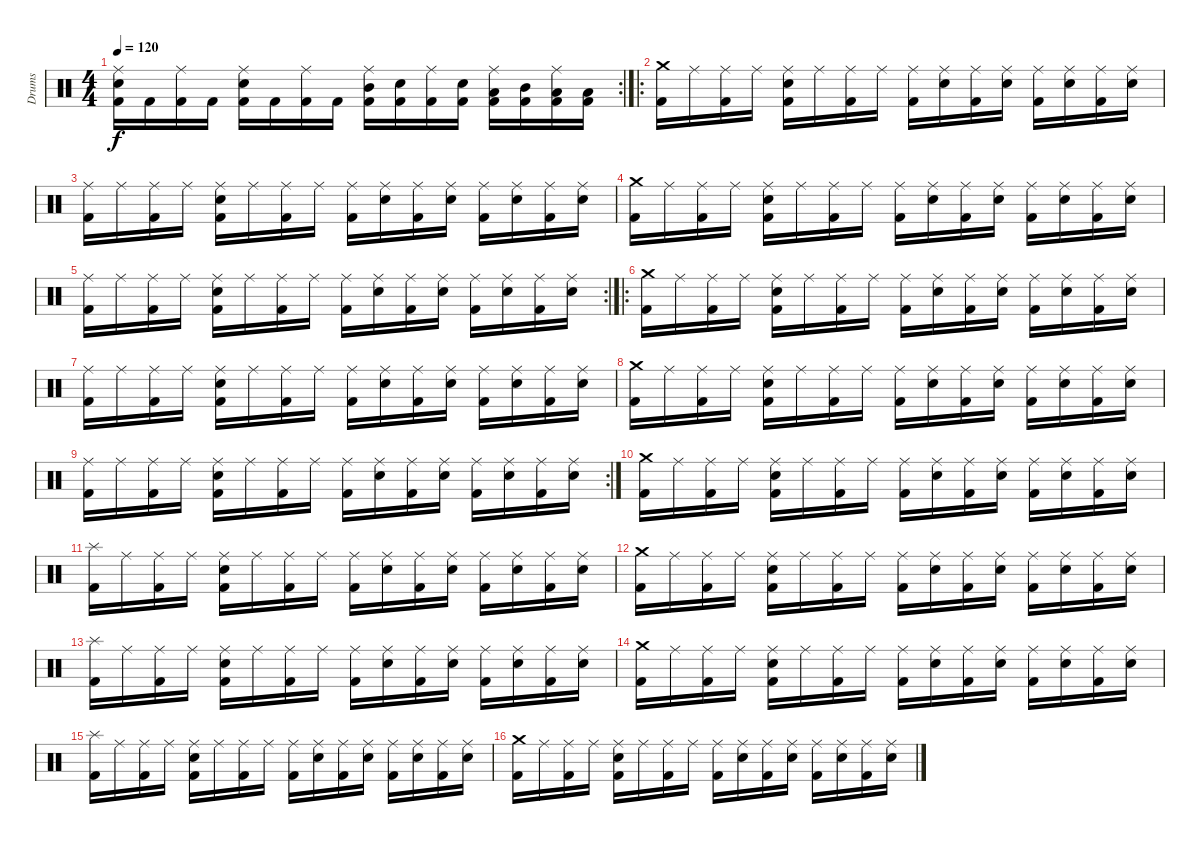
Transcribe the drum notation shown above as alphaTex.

\track ("Drums" "Drums") {instrument percussion}
\staff {score}
\articulation defaults
\rc 2
\ts (4 4)
\tempo 120
\clef neutral
\ks c
("Ride (middle)" "Snare (hit) 2" "Kick (hit) 2").16{dy f} "Kick (hit) 2".16 ("Ride (middle)" "Kick (hit) 2").16 "Kick (hit) 2".16 ("Ride (middle)" "Snare (hit) 2" "Kick (hit) 2").16 "Kick (hit) 2".16 ("Ride (middle)" "Kick (hit) 2").16 "Kick (hit) 2".16 ("Ride (middle)" "Mid Tom (hit)" "Kick (hit) 2").16 ("Snare (hit) 2" "Kick (hit) 2").16 ("Ride (middle)" "Kick (hit) 2").16 ("Snare (hit) 2" "Kick (hit) 2").16 ("Ride (middle)" "Low Floor Tom (hit)" "Kick (hit) 2").16 ("Mid Tom (hit)" "Kick (hit) 2").16 ("Ride (middle)" "Low Tom (hit)" "Kick (hit) 2").16 ("Low Floor Tom (hit)" "Kick (hit) 2").16 |
\ro
("Crash medium (hit)" "Kick (hit) 2").16 "Ride (middle)".16 ("Ride (middle)" "Kick (hit) 2").16 "Ride (middle)".16 ("Ride (middle)" "Kick (hit) 2" "Snare (hit) 2").16 "Ride (middle)".16 ("Ride (middle)" "Kick (hit) 2").16 "Ride (middle)".16 ("Ride (middle)" "Kick (hit) 2").16 ("Ride (middle)" "Snare (hit) 2").16 ("Ride (middle)" "Kick (hit) 2").16 ("Ride (middle)" "Snare (hit) 2").16 ("Ride (middle)" "Kick (hit) 2").16 ("Ride (middle)" "Snare (hit) 2").16 ("Ride (middle)" "Kick (hit) 2").16 ("Ride (middle)" "Snare (hit) 2").16 |
("Ride (middle)" "Kick (hit) 2").16 "Ride (middle)".16 ("Ride (middle)" "Kick (hit) 2").16 "Ride (middle)".16 ("Ride (middle)" "Kick (hit) 2" "Snare (hit) 2").16 "Ride (middle)".16 ("Ride (middle)" "Kick (hit) 2").16 "Ride (middle)".16 ("Ride (middle)" "Kick (hit) 2").16 ("Ride (middle)" "Snare (hit) 2").16 ("Ride (middle)" "Kick (hit) 2").16 ("Ride (middle)" "Snare (hit) 2").16 ("Ride (middle)" "Kick (hit) 2").16 ("Ride (middle)" "Snare (hit) 2").16 ("Ride (middle)" "Kick (hit) 2").16 ("Ride (middle)" "Snare (hit) 2").16 |
("Crash medium (hit)" "Kick (hit) 2").16 "Ride (middle)".16 ("Ride (middle)" "Kick (hit) 2").16 "Ride (middle)".16 ("Ride (middle)" "Kick (hit) 2" "Snare (hit) 2").16 "Ride (middle)".16 ("Ride (middle)" "Kick (hit) 2").16 "Ride (middle)".16 ("Ride (middle)" "Kick (hit) 2").16 ("Ride (middle)" "Snare (hit) 2").16 ("Ride (middle)" "Kick (hit) 2").16 ("Ride (middle)" "Snare (hit) 2").16 ("Ride (middle)" "Kick (hit) 2").16 ("Ride (middle)" "Snare (hit) 2").16 ("Ride (middle)" "Kick (hit) 2").16 ("Ride (middle)" "Snare (hit) 2").16 |
\rc 2
("Ride (middle)" "Kick (hit) 2").16 "Ride (middle)".16 ("Ride (middle)" "Kick (hit) 2").16 "Ride (middle)".16 ("Ride (middle)" "Kick (hit) 2" "Snare (hit) 2").16 "Ride (middle)".16 ("Ride (middle)" "Kick (hit) 2").16 "Ride (middle)".16 ("Ride (middle)" "Kick (hit) 2").16 ("Ride (middle)" "Snare (hit) 2").16 ("Ride (middle)" "Kick (hit) 2").16 ("Ride (middle)" "Snare (hit) 2").16 ("Ride (middle)" "Kick (hit) 2").16 ("Ride (middle)" "Snare (hit) 2").16 ("Ride (middle)" "Kick (hit) 2").16 ("Ride (middle)" "Snare (hit) 2").16 |
\ro
("Crash medium (hit)" "Kick (hit) 2").16 "Ride (middle)".16 ("Ride (middle)" "Kick (hit) 2").16 "Ride (middle)".16 ("Ride (middle)" "Kick (hit) 2" "Snare (hit) 2").16 "Ride (middle)".16 ("Ride (middle)" "Kick (hit) 2").16 "Ride (middle)".16 ("Ride (middle)" "Kick (hit) 2").16 ("Ride (middle)" "Snare (hit) 2").16 ("Ride (middle)" "Kick (hit) 2").16 ("Ride (middle)" "Snare (hit) 2").16 ("Ride (middle)" "Kick (hit) 2").16 ("Ride (middle)" "Snare (hit) 2").16 ("Ride (middle)" "Kick (hit) 2").16 ("Ride (middle)" "Snare (hit) 2").16 |
("Ride (middle)" "Kick (hit) 2").16 "Ride (middle)".16 ("Ride (middle)" "Kick (hit) 2").16 "Ride (middle)".16 ("Ride (middle)" "Kick (hit) 2" "Snare (hit) 2").16 "Ride (middle)".16 ("Ride (middle)" "Kick (hit) 2").16 "Ride (middle)".16 ("Ride (middle)" "Kick (hit) 2").16 ("Ride (middle)" "Snare (hit) 2").16 ("Ride (middle)" "Kick (hit) 2").16 ("Ride (middle)" "Snare (hit) 2").16 ("Ride (middle)" "Kick (hit) 2").16 ("Ride (middle)" "Snare (hit) 2").16 ("Ride (middle)" "Kick (hit) 2").16 ("Ride (middle)" "Snare (hit) 2").16 |
("Crash medium (hit)" "Kick (hit) 2").16 "Ride (middle)".16 ("Ride (middle)" "Kick (hit) 2").16 "Ride (middle)".16 ("Ride (middle)" "Kick (hit) 2" "Snare (hit) 2").16 "Ride (middle)".16 ("Ride (middle)" "Kick (hit) 2").16 "Ride (middle)".16 ("Ride (middle)" "Kick (hit) 2").16 ("Ride (middle)" "Snare (hit) 2").16 ("Ride (middle)" "Kick (hit) 2").16 ("Ride (middle)" "Snare (hit) 2").16 ("Ride (middle)" "Kick (hit) 2").16 ("Ride (middle)" "Snare (hit) 2").16 ("Ride (middle)" "Kick (hit) 2").16 ("Ride (middle)" "Snare (hit) 2").16 |
\rc 2
("Ride (middle)" "Kick (hit) 2").16 "Ride (middle)".16 ("Ride (middle)" "Kick (hit) 2").16 "Ride (middle)".16 ("Ride (middle)" "Kick (hit) 2" "Snare (hit) 2").16 "Ride (middle)".16 ("Ride (middle)" "Kick (hit) 2").16 "Ride (middle)".16 ("Ride (middle)" "Kick (hit) 2").16 ("Ride (middle)" "Snare (hit) 2").16 ("Ride (middle)" "Kick (hit) 2").16 ("Ride (middle)" "Snare (hit) 2").16 ("Ride (middle)" "Kick (hit) 2").16 ("Ride (middle)" "Snare (hit) 2").16 ("Ride (middle)" "Kick (hit) 2").16 ("Ride (middle)" "Snare (hit) 2").16 |
("Crash medium (hit)" "Kick (hit) 2").16 "Ride (middle)".16 ("Ride (middle)" "Kick (hit) 2").16 "Ride (middle)".16 ("Ride (middle)" "Kick (hit) 2" "Snare (hit) 2").16 "Ride (middle)".16 ("Ride (middle)" "Kick (hit) 2").16 "Ride (middle)".16 ("Ride (middle)" "Kick (hit) 2").16 ("Ride (middle)" "Snare (hit) 2").16 ("Ride (middle)" "Kick (hit) 2").16 ("Ride (middle)" "Snare (hit) 2").16 ("Ride (middle)" "Kick (hit) 2").16 ("Ride (middle)" "Snare (hit) 2").16 ("Ride (middle)" "Kick (hit) 2").16 ("Ride (middle)" "Snare (hit) 2").16 |
("Splash (hit)" "Kick (hit) 2").16 "Ride (middle)".16 ("Ride (middle)" "Kick (hit) 2").16 "Ride (middle)".16 ("Ride (middle)" "Kick (hit) 2" "Snare (hit) 2").16 "Ride (middle)".16 ("Ride (middle)" "Kick (hit) 2").16 "Ride (middle)".16 ("Ride (middle)" "Kick (hit) 2").16 ("Ride (middle)" "Snare (hit) 2").16 ("Ride (middle)" "Kick (hit) 2").16 ("Ride (middle)" "Snare (hit) 2").16 ("Ride (middle)" "Kick (hit) 2").16 ("Ride (middle)" "Snare (hit) 2").16 ("Ride (middle)" "Kick (hit) 2").16 ("Ride (middle)" "Snare (hit) 2").16 |
("Crash medium (hit)" "Kick (hit) 2").16 "Ride (middle)".16 ("Ride (middle)" "Kick (hit) 2").16 "Ride (middle)".16 ("Ride (middle)" "Kick (hit) 2" "Snare (hit) 2").16 "Ride (middle)".16 ("Ride (middle)" "Kick (hit) 2").16 "Ride (middle)".16 ("Ride (middle)" "Kick (hit) 2").16 ("Ride (middle)" "Snare (hit) 2").16 ("Ride (middle)" "Kick (hit) 2").16 ("Ride (middle)" "Snare (hit) 2").16 ("Ride (middle)" "Kick (hit) 2").16 ("Ride (middle)" "Snare (hit) 2").16 ("Ride (middle)" "Kick (hit) 2").16 ("Ride (middle)" "Snare (hit) 2").16 |
("Splash (hit)" "Kick (hit) 2").16 "Ride (middle)".16 ("Ride (middle)" "Kick (hit) 2").16 "Ride (middle)".16 ("Ride (middle)" "Kick (hit) 2" "Snare (hit) 2").16 "Ride (middle)".16 ("Ride (middle)" "Kick (hit) 2").16 "Ride (middle)".16 ("Ride (middle)" "Kick (hit) 2").16 ("Ride (middle)" "Snare (hit) 2").16 ("Ride (middle)" "Kick (hit) 2").16 ("Ride (middle)" "Snare (hit) 2").16 ("Ride (middle)" "Kick (hit) 2").16 ("Ride (middle)" "Snare (hit) 2").16 ("Ride (middle)" "Kick (hit) 2").16 ("Ride (middle)" "Snare (hit) 2").16 |
("Crash medium (hit)" "Kick (hit) 2").16 "Ride (middle)".16 ("Ride (middle)" "Kick (hit) 2").16 "Ride (middle)".16 ("Ride (middle)" "Kick (hit) 2" "Snare (hit) 2").16 "Ride (middle)".16 ("Ride (middle)" "Kick (hit) 2").16 "Ride (middle)".16 ("Ride (middle)" "Kick (hit) 2").16 ("Ride (middle)" "Snare (hit) 2").16 ("Ride (middle)" "Kick (hit) 2").16 ("Ride (middle)" "Snare (hit) 2").16 ("Ride (middle)" "Kick (hit) 2").16 ("Ride (middle)" "Snare (hit) 2").16 ("Ride (middle)" "Kick (hit) 2").16 ("Ride (middle)" "Snare (hit) 2").16 |
("Splash (hit)" "Kick (hit) 2").16 "Ride (middle)".16 ("Ride (middle)" "Kick (hit) 2").16 "Ride (middle)".16 ("Ride (middle)" "Kick (hit) 2" "Snare (hit) 2").16 "Ride (middle)".16 ("Ride (middle)" "Kick (hit) 2").16 "Ride (middle)".16 ("Ride (middle)" "Kick (hit) 2").16 ("Ride (middle)" "Snare (hit) 2").16 ("Ride (middle)" "Kick (hit) 2").16 ("Ride (middle)" "Snare (hit) 2").16 ("Ride (middle)" "Kick (hit) 2").16 ("Ride (middle)" "Snare (hit) 2").16 ("Ride (middle)" "Kick (hit) 2").16 ("Ride (middle)" "Snare (hit) 2").16 |
("Crash medium (hit)" "Kick (hit) 2").16 "Ride (middle)".16 ("Ride (middle)" "Kick (hit) 2").16 "Ride (middle)".16 ("Ride (middle)" "Kick (hit) 2" "Snare (hit) 2").16 "Ride (middle)".16 ("Ride (middle)" "Kick (hit) 2").16 "Ride (middle)".16 ("Ride (middle)" "Kick (hit) 2").16 ("Ride (middle)" "Snare (hit) 2").16 ("Ride (middle)" "Kick (hit) 2").16 ("Ride (middle)" "Snare (hit) 2").16 ("Ride (middle)" "Kick (hit) 2").16 ("Ride (middle)" "Snare (hit) 2").16 ("Ride (middle)" "Kick (hit) 2").16 ("Ride (middle)" "Snare (hit) 2").16
